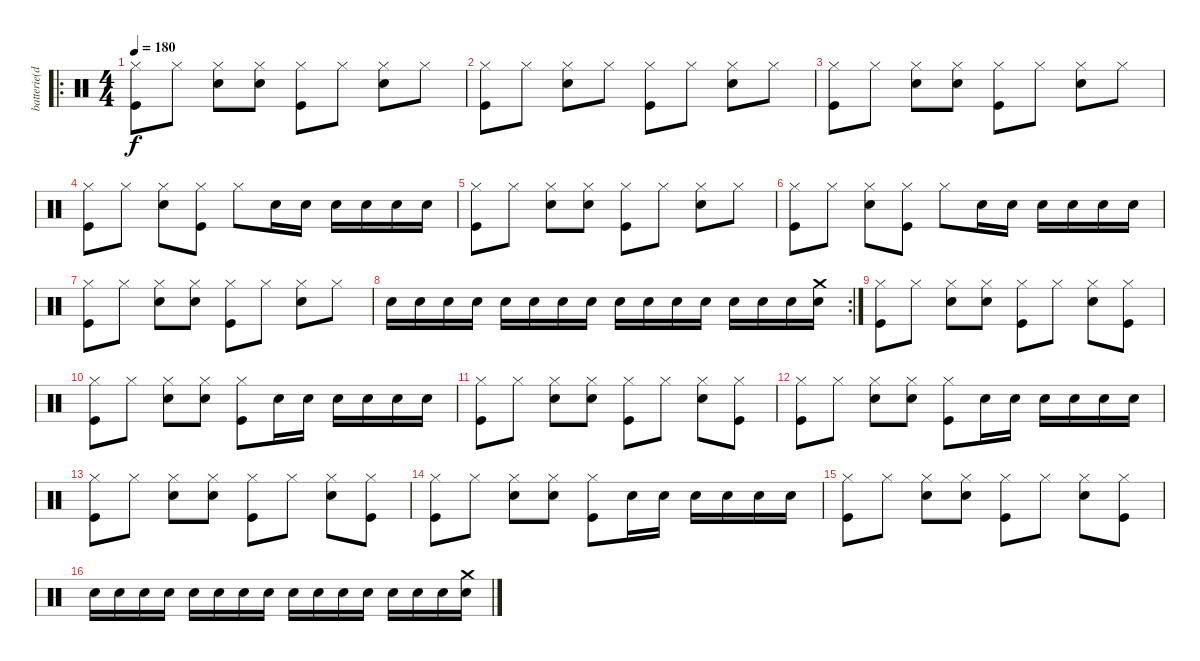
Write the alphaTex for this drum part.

\track ("batterie(dave)" "batterie(d") {instrument percussion}
\staff {score}
\articulation defaults
\ro
\ts (4 4)
\tempo 180
\clef neutral
\ks c
("Hi-Hat (closed)" "Kick (hit)").8{dy f} "Hi-Hat (closed)".8 ("Hi-Hat (closed)" "Snare (hit) 2").8 ("Hi-Hat (closed)" "Snare (hit) 2").8 ("Hi-Hat (closed)" "Kick (hit)").8 "Hi-Hat (closed)".8 ("Hi-Hat (closed)" "Snare (hit) 2").8 "Hi-Hat (closed)".8 |
("Hi-Hat (closed)" "Kick (hit)").8 "Hi-Hat (closed)".8 ("Hi-Hat (closed)" "Snare (hit) 2").8 "Hi-Hat (closed)".8 ("Hi-Hat (closed)" "Kick (hit)").8 "Hi-Hat (closed)".8 ("Hi-Hat (closed)" "Snare (hit) 2").8 "Hi-Hat (closed)".8 |
("Hi-Hat (closed)" "Kick (hit)").8 "Hi-Hat (closed)".8 ("Hi-Hat (closed)" "Snare (hit) 2").8 ("Hi-Hat (closed)" "Snare (hit) 2").8 ("Hi-Hat (closed)" "Kick (hit)").8 "Hi-Hat (closed)".8 ("Hi-Hat (closed)" "Snare (hit) 2").8 "Hi-Hat (closed)".8 |
("Hi-Hat (closed)" "Kick (hit)").8 "Hi-Hat (closed)".8 ("Hi-Hat (closed)" "Snare (hit) 2").8 ("Hi-Hat (closed)" "Kick (hit)").8 "Hi-Hat (closed)".8 "Snare (hit) 2".16 "Snare (hit) 2".16 "Snare (hit) 2".16 "Snare (hit) 2".16 "Snare (hit) 2".16 "Snare (hit) 2".16 |
("Hi-Hat (closed)" "Kick (hit)").8 "Hi-Hat (closed)".8 ("Hi-Hat (closed)" "Snare (hit) 2").8 ("Hi-Hat (closed)" "Snare (hit) 2").8 ("Hi-Hat (closed)" "Kick (hit)").8 "Hi-Hat (closed)".8 ("Hi-Hat (closed)" "Snare (hit) 2").8 "Hi-Hat (closed)".8 |
("Hi-Hat (closed)" "Kick (hit)").8 "Hi-Hat (closed)".8 ("Hi-Hat (closed)" "Snare (hit) 2").8 ("Hi-Hat (closed)" "Kick (hit)").8 "Hi-Hat (closed)".8 "Snare (hit) 2".16 "Snare (hit) 2".16 "Snare (hit) 2".16 "Snare (hit) 2".16 "Snare (hit) 2".16 "Snare (hit) 2".16 |
("Hi-Hat (closed)" "Kick (hit)").8 "Hi-Hat (closed)".8 ("Hi-Hat (closed)" "Snare (hit) 2").8 ("Hi-Hat (closed)" "Snare (hit) 2").8 ("Hi-Hat (closed)" "Kick (hit)").8 "Hi-Hat (closed)".8 ("Hi-Hat (closed)" "Snare (hit) 2").8 "Hi-Hat (closed)".8 |
\rc 2 "Snare (hit) 2".16 "Snare (hit) 2".16 "Snare (hit) 2".16 "Snare (hit) 2".16 "Snare (hit) 2".16 "Snare (hit) 2".16 "Snare (hit) 2".16 "Snare (hit) 2".16 "Snare (hit) 2".16 "Snare (hit) 2".16 "Snare (hit) 2".16 "Snare (hit) 2".16 "Snare (hit) 2".16 "Snare (hit) 2".16 "Snare (hit) 2".16
("Crash medium (hit)" "Snare (hit) 2").16 |
("Hi-Hat (closed)" "Kick (hit)").8 "Hi-Hat (closed)".8 ("Hi-Hat (closed)" "Snare (hit) 2").8 ("Hi-Hat (closed)" "Snare (hit) 2").8 ("Hi-Hat (closed)" "Kick (hit)").8 "Hi-Hat (closed)".8 ("Hi-Hat (closed)" "Snare (hit) 2").8 ("Hi-Hat (closed)" "Kick (hit)").8 |
("Hi-Hat (closed)" "Kick (hit)").8 "Hi-Hat (closed)".8 ("Hi-Hat (closed)" "Snare (hit) 2").8 ("Hi-Hat (closed)" "Snare (hit) 2").8 ("Hi-Hat (closed)" "Kick (hit)").8 "Snare (hit) 2".16 "Snare (hit) 2".16 "Snare (hit) 2".16 "Snare (hit) 2".16 "Snare (hit) 2".16 "Snare (hit) 2".16 |
("Hi-Hat (closed)" "Kick (hit)").8 "Hi-Hat (closed)".8 ("Hi-Hat (closed)" "Snare (hit) 2").8 ("Hi-Hat (closed)" "Snare (hit) 2").8 ("Hi-Hat (closed)" "Kick (hit)").8 "Hi-Hat (closed)".8 ("Hi-Hat (closed)" "Snare (hit) 2").8 ("Hi-Hat (closed)" "Kick (hit)").8 |
("Hi-Hat (closed)" "Kick (hit)").8 "Hi-Hat (closed)".8 ("Hi-Hat (closed)" "Snare (hit) 2").8 ("Hi-Hat (closed)" "Snare (hit) 2").8 ("Hi-Hat (closed)" "Kick (hit)").8 "Snare (hit) 2".16 "Snare (hit) 2".16 "Snare (hit) 2".16 "Snare (hit) 2".16 "Snare (hit) 2".16 "Snare (hit) 2".16 |
("Hi-Hat (closed)" "Kick (hit)").8 "Hi-Hat (closed)".8 ("Hi-Hat (closed)" "Snare (hit) 2").8 ("Hi-Hat (closed)" "Snare (hit) 2").8 ("Hi-Hat (closed)" "Kick (hit)").8 "Hi-Hat (closed)".8 ("Hi-Hat (closed)" "Snare (hit) 2").8 ("Hi-Hat (closed)" "Kick (hit)").8 |
("Hi-Hat (closed)" "Kick (hit)").8 "Hi-Hat (closed)".8 ("Hi-Hat (closed)" "Snare (hit) 2").8 ("Hi-Hat (closed)" "Snare (hit) 2").8 ("Hi-Hat (closed)" "Kick (hit)").8 "Snare (hit) 2".16 "Snare (hit) 2".16 "Snare (hit) 2".16 "Snare (hit) 2".16 "Snare (hit) 2".16 "Snare (hit) 2".16 |
("Hi-Hat (closed)" "Kick (hit)").8 "Hi-Hat (closed)".8 ("Hi-Hat (closed)" "Snare (hit) 2").8 ("Hi-Hat (closed)" "Snare (hit) 2").8 ("Hi-Hat (closed)" "Kick (hit)").8 "Hi-Hat (closed)".8 ("Hi-Hat (closed)" "Snare (hit) 2").8 ("Hi-Hat (closed)" "Kick (hit)").8 |
"Snare (hit) 2".16 "Snare (hit) 2".16 "Snare (hit) 2".16 "Snare (hit) 2".16 "Snare (hit) 2".16 "Snare (hit) 2".16 "Snare (hit) 2".16 "Snare (hit) 2".16 "Snare (hit) 2".16 "Snare (hit) 2".16 "Snare (hit) 2".16 "Snare (hit) 2".16 "Snare (hit) 2".16 "Snare (hit) 2".16 "Snare (hit) 2".16 ("Crash medium (hit)" "Snare (hit) 2").16
